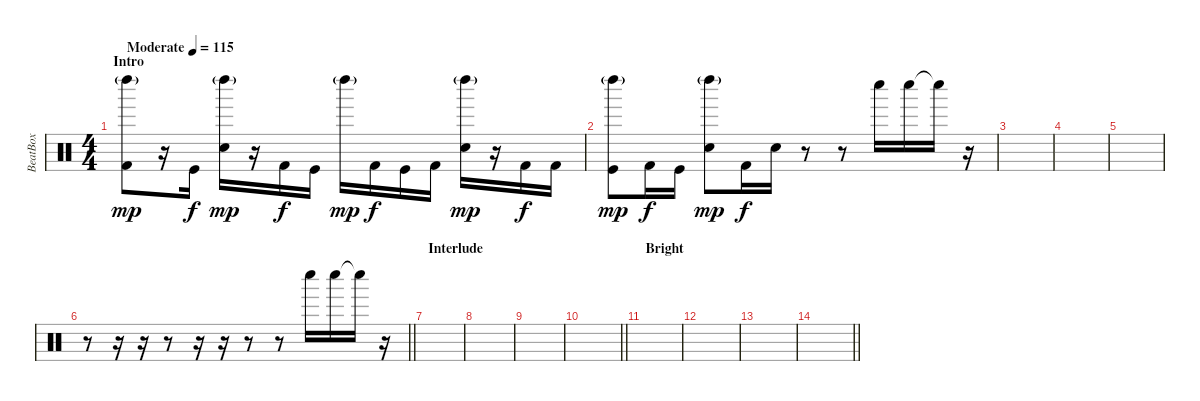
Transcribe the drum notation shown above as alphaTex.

\track ("BeatBox " "BeatBox ") {instrument percussion}
\staff {score}
\articulation defaults
\ts (4 4)
\section ("" "Intro ")
\tempo (115 "Moderate")
\clef neutral
\ks c
("Left Maraca (hit)"{g} "Kick (hit) 2").8{dy mp volume 16} r.16 "Kick (hit)".16{dy f} ("Left Maraca (hit)"{g} "Snare (hit) 2").16{dy mp} r.16 "Kick (hit) 2".16{dy f} "Kick (hit)".16 "Left Maraca (hit)"{g}.16{dy mp} "Kick (hit) 2".16{dy f} "Kick (hit)".16 "Kick (hit) 2".16 ("Left Maraca (hit)"{g} "Snare (hit) 2").16{dy mp} r.16 "Kick (hit) 2".16{dy f} "Kick (hit) 2".16 |
("Left Maraca (hit)"{g} "Kick (hit)").8{dy mp} "Kick (hit) 2".16{dy f} "Kick (hit)".16 ("Left Maraca (hit)"{g} "Snare (hit) 2").8{dy mp} "Kick (hit) 2".16{dy f} "Snare (hit) 2".16 r.8 r.8 "Whistle low (hit)".16 "Whistle low (hit)".16 "Whistle low (hit)"{t}.16 r.16 |
|
|
|
\barLineRight lightlight
r.8 r.16 r.16 r.8 r.16 r.16 r.8 r.8 "Whistle low (hit)".16 "Whistle low (hit)".16 "Whistle low (hit)"{t}.16 r.16 |
\section ("" "Interlude ")
|
|
|
\barLineRight lightlight
|
\section ("" "Bright ")
|
|
|
\barLineRight lightlight
